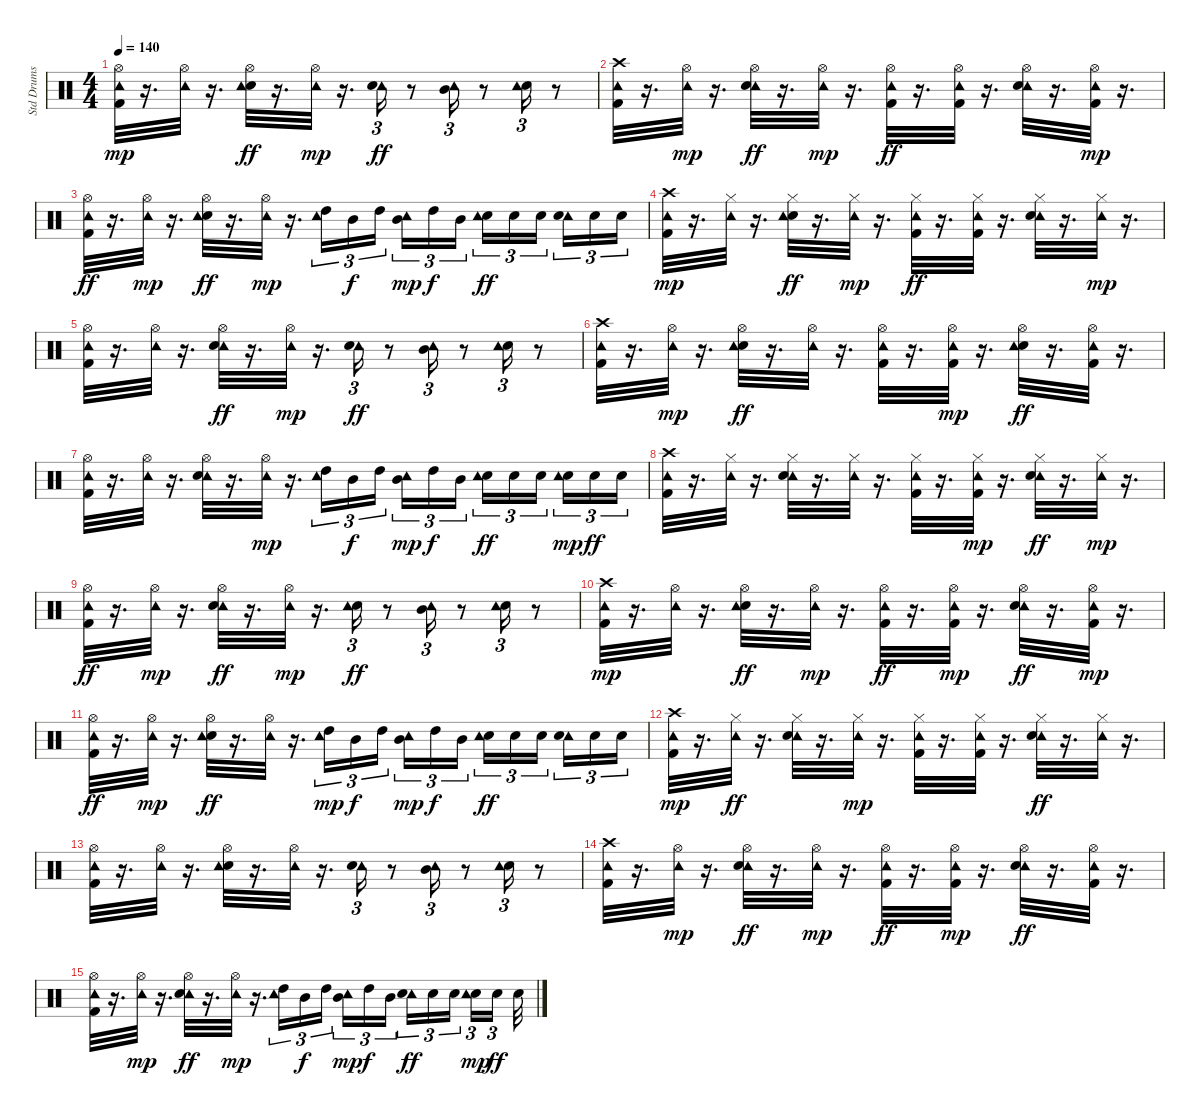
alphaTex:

\track ("Std Drums" "Std Drums") {instrument percussion}
\staff {score}
\articulation defaults
\ts (4 4)
\tempo 140
\clef neutral
\ks c
("Hi-Hat (open)" "Kick (hit) 2" "Tambourine (hit)").32{dy mp volume 13} r.16{d} ("Hi-Hat (open)" "Tambourine (hit)").32{volume 13} r.16{d} ("Snare (hit) 2" "Hi-Hat (open)" "Tambourine (hit)").32{dy ff} r.16{d} ("Hi-Hat (open)" "Tambourine (hit)").32{dy mp volume 13} r.16{d} ("Tambourine (hit)" "Snare (hit) 2").16{tu (3 2) dy ff volume 13} r.8 ("Tambourine (hit)" "Mid Tom (hit)").16{tu (3 2) volume 13} r.8 ("Snare (hit) 2" "Tambourine (hit)").16{tu (3 2) volume 12} r.8 |
("Tambourine (hit)" "Crash high (hit)" "Kick (hit) 2").32{volume 12} r.16{d} ("Hi-Hat (open)" "Tambourine (hit)").32{dy mp volume 12} r.16{d} ("Hi-Hat (open)" "Tambourine (hit)" "Snare (hit) 2").32{dy ff} r.16{d} ("Hi-Hat (open)" "Tambourine (hit)").32{dy mp volume 12} r.16{d} ("Tambourine (hit)" "Hi-Hat (open)" "Kick (hit) 2").32{dy ff volume 12} r.16{d} ("Kick (hit) 2" "Tambourine (hit)" "Hi-Hat (open)").32{volume 12} r.16{d} ("Hi-Hat (open)" "Tambourine (hit)" "Snare (hit) 2").32{volume 12} r.16{d} ("Hi-Hat (open)" "Kick (hit) 2" "Tambourine (hit)").32{dy mp volume 12} r.16{d} |
("Kick (hit) 2" "Tambourine (hit)" "Hi-Hat (open)").32{dy ff volume 12} r.16{d} ("Hi-Hat (open)" "Tambourine (hit)").32{dy mp volume 11} r.16{d} ("Snare (hit) 2" "Tambourine (hit)" "Hi-Hat (open)").32{dy ff volume 11} r.16{d} ("Hi-Hat (open)" "Tambourine (hit)").32{dy mp} r.16{d} ("High Tom (hit)" "Tambourine (hit)").16{tu (3 2) volume 11} "Mid Tom (hit)".16{tu (3 2) dy f volume 11} "High Tom (hit)".16{tu (3 2)} ("Mid Tom (hit)" "Tambourine (hit)").16{tu (3 2) dy mp} "High Tom (hit)".16{tu (3 2) dy f} "Mid Tom (hit)".16{tu (3 2) volume 11} ("Snare (hit) 2" "Tambourine (hit)").16{tu (3 2) dy ff} "Snare (hit) 2".16{tu (3 2)} "Snare (hit) 2".16{tu (3 2) volume 11} ("Tambourine (hit)" "Snare (hit) 2").16{tu (3 2)} "Snare (hit) 2".16{tu (3 2)} "Snare (hit) 2".16{tu (3 2) volume 11} |
("Crash high (hit)" "Kick (hit) 2" "Tambourine (hit)").32{dy mp} r.16{d} ("Hi-Hat (closed)" "Tambourine (hit)").32{volume 10} r.16{d} ("Snare (hit) 2" "Tambourine (hit)" "Hi-Hat (closed)").32{dy ff volume 10} r.16{d} ("Hi-Hat (closed)" "Tambourine (hit)").32{dy mp} r.16{d} ("Tambourine (hit)" "Hi-Hat (closed)" "Kick (hit) 2").32{dy ff volume 10} r.16{d} ("Kick (hit) 2" "Tambourine (hit)" "Hi-Hat (closed)").32{volume 10} r.16{d} ("Tambourine (hit)" "Snare (hit) 2" "Hi-Hat (closed)").32{volume 10} r.16{d} ("Hi-Hat (closed)" "Tambourine (hit)").32{dy mp volume 10} r.16{d} |
("Hi-Hat (open)" "Kick (hit) 2" "Tambourine (hit)").32{volume 10} r.16{d} ("Hi-Hat (open)" "Tambourine (hit)").32{volume 10} r.16{d} ("Tambourine (hit)" "Snare (hit) 2" "Hi-Hat (open)").32{dy ff volume 10} r.16{d} ("Hi-Hat (open)" "Tambourine (hit)").32{dy mp volume 9} r.16{d} ("Tambourine (hit)" "Snare (hit) 2").16{tu (3 2) dy ff} r.8 ("Mid Tom (hit)" "Tambourine (hit)").16{tu (3 2) volume 9} r.8 ("Snare (hit) 2" "Tambourine (hit)").16{tu (3 2) volume 9} r.8 |
("Crash high (hit)" "Tambourine (hit)" "Kick (hit) 2").32{volume 9} r.16{d} ("Hi-Hat (open)" "Tambourine (hit)").32{dy mp volume 9} r.16{d} ("Snare (hit) 2" "Tambourine (hit)" "Hi-Hat (open)").32{dy ff volume 9} r.16{d} ("Tambourine (hit)" "Hi-Hat (open)").32{volume 8} r.16{d} ("Tambourine (hit)" "Kick (hit) 2" "Hi-Hat (open)").32 r.16{d} ("Kick (hit) 2" "Hi-Hat (open)" "Tambourine (hit)").32{dy mp volume 8} r.16{d} ("Snare (hit) 2" "Hi-Hat (open)" "Tambourine (hit)").32{dy ff volume 8} r.16{d} ("Hi-Hat (open)" "Tambourine (hit)" "Kick (hit) 2").32{volume 8} r.16{d} |
("Kick (hit) 2" "Tambourine (hit)" "Hi-Hat (open)").32{volume 8} r.16{d} ("Tambourine (hit)" "Hi-Hat (open)").32{volume 8} r.16{d} ("Tambourine (hit)" "Snare (hit) 2" "Hi-Hat (open)").32{volume 8} r.16{d} ("Hi-Hat (open)" "Tambourine (hit)").32{dy mp volume 8} r.16{d} ("High Tom (hit)" "Tambourine (hit)").16{tu (3 2) volume 8} "Mid Tom (hit)".16{tu (3 2) dy f} "High Tom (hit)".16{tu (3 2)} ("Mid Tom (hit)" "Tambourine (hit)").16{tu (3 2) dy mp} "High Tom (hit)".16{tu (3 2) dy f volume 7} "Mid Tom (hit)".16{tu (3 2)} ("Snare (hit) 2" "Tambourine (hit)").16{tu (3 2) dy ff} "Snare (hit) 2".16{tu (3 2) volume 7} "Snare (hit) 2".16{tu (3 2)} ("Snare (hit) 2" "Tambourine (hit)").16{tu (3 2) dy mp} "Snare (hit) 2".16{tu (3 2) dy ff} "Snare (hit) 2".16{tu (3 2) volume 7} |
("Tambourine (hit)" "Kick (hit) 2" "Crash high (hit)").32 r.16{d} ("Tambourine (hit)" "Hi-Hat (closed)").32{volume 7} r.16{d} ("Tambourine (hit)" "Hi-Hat (closed)" "Snare (hit) 2").32{volume 7} r.16{d} ("Tambourine (hit)" "Hi-Hat (closed)").32{volume 7} r.16{d} ("Hi-Hat (closed)" "Tambourine (hit)" "Kick (hit) 2").32{volume 7} r.16{d} ("Hi-Hat (closed)" "Kick (hit) 2" "Tambourine (hit)").32{dy mp} r.16{d} ("Tambourine (hit)" "Hi-Hat (closed)" "Snare (hit) 2").32{dy ff volume 6} r.16{d} ("Hi-Hat (closed)" "Tambourine (hit)").32{dy mp volume 6} r.16{d} |
("Tambourine (hit)" "Hi-Hat (open)" "Kick (hit) 2").32{dy ff volume 6} r.16{d} ("Hi-Hat (open)" "Tambourine (hit)").32{dy mp volume 6} r.16{d} ("Tambourine (hit)" "Hi-Hat (open)" "Snare (hit) 2").32{dy ff volume 6} r.16{d} ("Hi-Hat (open)" "Tambourine (hit)").32{dy mp volume 6} r.16{d} ("Snare (hit) 2" "Tambourine (hit)").16{tu (3 2) dy ff volume 6} r.8 ("Tambourine (hit)" "Mid Tom (hit)").16{tu (3 2) volume 6} r.8 ("Snare (hit) 2" "Tambourine (hit)").16{tu (3 2) volume 6} r.8 |
("Crash high (hit)" "Kick (hit) 2" "Tambourine (hit)").32{dy mp volume 5} r.16{d} ("Hi-Hat (open)" "Tambourine (hit)").32{volume 5} r.16{d} ("Snare (hit) 2" "Hi-Hat (open)" "Tambourine (hit)").32{dy ff volume 5} r.16{d} ("Hi-Hat (open)" "Tambourine (hit)").32{dy mp volume 5} r.16{d} ("Tambourine (hit)" "Kick (hit) 2" "Hi-Hat (open)").32{dy ff volume 5} r.16{d} ("Hi-Hat (open)" "Kick (hit) 2" "Tambourine (hit)").32{dy mp volume 5} r.16{d} ("Tambourine (hit)" "Snare (hit) 2" "Hi-Hat (open)").32{dy ff} r.16{d} ("Kick (hit) 2" "Hi-Hat (open)" "Tambourine (hit)").32{dy mp volume 5} r.16{d} |
("Kick (hit) 2" "Tambourine (hit)" "Hi-Hat (open)").32{dy ff volume 4} r.16{d} ("Hi-Hat (open)" "Tambourine (hit)").32{dy mp volume 4} r.16{d} ("Snare (hit) 2" "Tambourine (hit)" "Hi-Hat (open)").32{dy ff volume 4} r.16{d} ("Tambourine (hit)" "Hi-Hat (open)").32{volume 4} r.16{d} ("High Tom (hit)" "Tambourine (hit)").16{tu (3 2) dy mp volume 4} "Mid Tom (hit)".16{tu (3 2) dy f} "High Tom (hit)".16{tu (3 2)} ("Mid Tom (hit)" "Tambourine (hit)").16{tu (3 2) dy mp volume 4} "High Tom (hit)".16{tu (3 2) dy f} "Mid Tom (hit)".16{tu (3 2)} ("Snare (hit) 2" "Tambourine (hit)").16{tu (3 2) dy ff volume 4} "Snare (hit) 2".16{tu (3 2)} "Snare (hit) 2".16{tu (3 2)} ("Tambourine (hit)" "Snare (hit) 2").16{tu (3 2)} "Snare (hit) 2".16{tu (3 2) volume 4} "Snare (hit) 2".16{tu (3 2)} |
("Crash high (hit)" "Kick (hit) 2" "Tambourine (hit)").32{dy mp} r.16{d} ("Tambourine (hit)" "Hi-Hat (closed)").32{dy ff volume 4} r.16{d} ("Tambourine (hit)" "Snare (hit) 2" "Hi-Hat (closed)").32{volume 3} r.16{d} ("Hi-Hat (closed)" "Tambourine (hit)").32{dy mp volume 3} r.16{d} ("Kick (hit) 2" "Hi-Hat (closed)" "Tambourine (hit)").32{volume 3} r.16{d} ("Kick (hit) 2" "Hi-Hat (closed)" "Tambourine (hit)").32{volume 3} r.16{d} ("Hi-Hat (closed)" "Tambourine (hit)" "Snare (hit) 2").32{dy ff volume 3} r.16{d} ("Tambourine (hit)" "Hi-Hat (closed)").32 r.16{d} |
("Hi-Hat (open)" "Tambourine (hit)" "Kick (hit) 2").32{volume 3} r.16{d} ("Tambourine (hit)" "Hi-Hat (open)").32{volume 3} r.16{d} ("Hi-Hat (open)" "Snare (hit) 2" "Tambourine (hit)").32{volume 2} r.16{d} ("Tambourine (hit)" "Hi-Hat (open)").32{volume 2} r.16{d} ("Tambourine (hit)" "Snare (hit) 2").16{tu (3 2) volume 2} r.8 ("Mid Tom (hit)" "Tambourine (hit)").16{tu (3 2) volume 2} r.8 ("Snare (hit) 2" "Tambourine (hit)").16{tu (3 2) volume 2} r.8 |
("Tambourine (hit)" "Crash high (hit)" "Kick (hit) 2").32{volume 2} r.16{d} ("Hi-Hat (open)" "Tambourine (hit)").32{dy mp volume 2} r.16{d} ("Hi-Hat (open)" "Tambourine (hit)" "Snare (hit) 2").32{dy ff volume 2} r.16{d} ("Hi-Hat (open)" "Tambourine (hit)").32{dy mp volume 2} r.16{d} ("Kick (hit) 2" "Tambourine (hit)" "Hi-Hat (open)").32{dy ff volume 1} r.16{d} ("Kick (hit) 2" "Hi-Hat (open)" "Tambourine (hit)").32{dy mp volume 1} r.16{d} ("Tambourine (hit)" "Hi-Hat (open)" "Snare (hit) 2").32{dy ff volume 1} r.16{d} ("Hi-Hat (open)" "Tambourine (hit)" "Kick (hit) 2").32{volume 1} r.16{d} |
("Tambourine (hit)" "Hi-Hat (open)" "Kick (hit) 2").32 r.16{d} ("Hi-Hat (open)" "Tambourine (hit)").32{dy mp volume 1} r.16{d} ("Tambourine (hit)" "Hi-Hat (open)" "Snare (hit) 2").32{dy ff volume 1} r.16{d} ("Hi-Hat (open)" "Tambourine (hit)").32{dy mp volume 1} r.16{d} ("Tambourine (hit)" "High Tom (hit)").16{tu (3 2) volume 0} "Mid Tom (hit)".16{tu (3 2) dy f} "High Tom (hit)".16{tu (3 2) volume 0} ("Tambourine (hit)" "Mid Tom (hit)").16{tu (3 2) dy mp} "High Tom (hit)".16{tu (3 2) dy f} "Mid Tom (hit)".16{tu (3 2)} ("Tambourine (hit)" "Snare (hit) 2").16{tu (3 2) dy ff volume 0} "Snare (hit) 2".16{tu (3 2)} "Snare (hit) 2".16{tu (3 2)} ("Snare (hit) 2" "Tambourine (hit)").16{tu (3 2) dy mp volume 0} "Snare (hit) 2".16{tu (3 2) dy ff} "Snare (hit) 2".32
